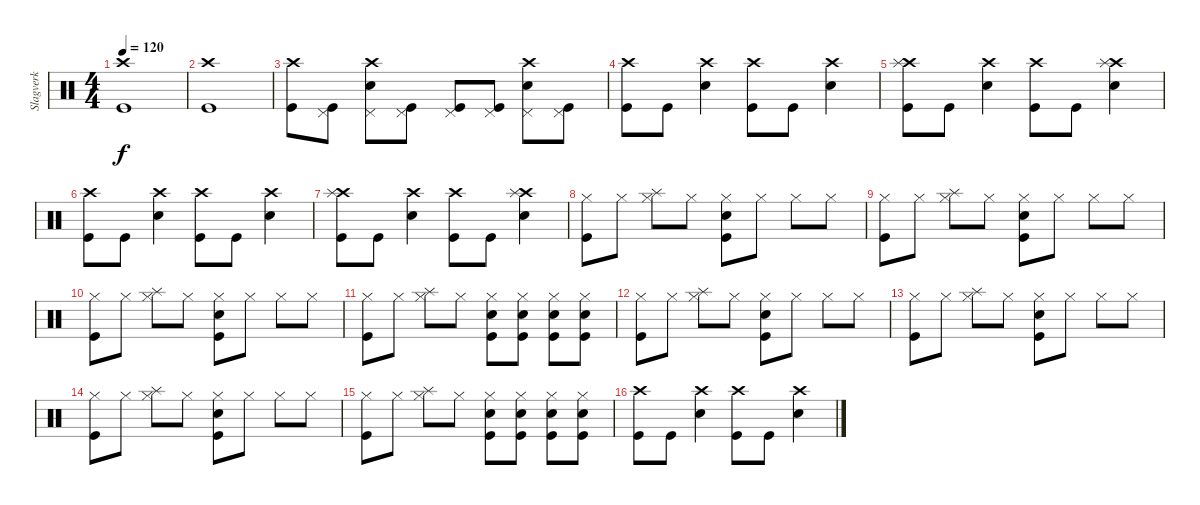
\track ("Slagverk" "Slagverk") {instrument percussion}
\staff {score}
\articulation defaults
\ts (4 4)
\tempo 120
\clef neutral
\ks c
("Crash high (hit)" "Kick (hit)").1{dy f} |
("Crash high (hit)" "Kick (hit)").1 |
("Crash high (hit)" "Kick (hit)").8 ("Pedal Hi-Hat (hit)" "Kick (hit)").8 ("Pedal Hi-Hat (hit)" "Crash high (hit)" "Snare (hit) 2").8 ("Pedal Hi-Hat (hit)" "Kick (hit)").8 ("Pedal Hi-Hat (hit)" "Kick (hit)").8 ("Pedal Hi-Hat (hit)" "Kick (hit)").8 ("Pedal Hi-Hat (hit)" "Crash high (hit)" "Snare (hit) 2").8 ("Pedal Hi-Hat (hit)" "Kick (hit)").8 |
("Crash high (hit)" "Kick (hit)").8 "Kick (hit)".8 ("Crash high (hit)" "Snare (hit) 2").4 ("Crash high (hit)" "Kick (hit)").8 "Kick (hit)".8 ("Crash high (hit)" "Snare (hit) 2").4 |
("Crash high (hit)" "Splash (hit)" "Kick (hit)").8 "Kick (hit)".8 ("Crash high (hit)" "Snare (hit) 2").4 ("Crash high (hit)" "Kick (hit)").8 "Kick (hit)".8 ("Crash high (hit)" "Splash (hit)" "Snare (hit) 2").4 |
("Crash high (hit)" "Kick (hit)").8 "Kick (hit)".8 ("Crash high (hit)" "Snare (hit) 2").4 ("Crash high (hit)" "Kick (hit)").8 "Kick (hit)".8 ("Crash high (hit)" "Snare (hit) 2").4 |
("Crash high (hit)" "Splash (hit)" "Kick (hit)").8 "Kick (hit)".8 ("Crash high (hit)" "Snare (hit) 2").4 ("Crash high (hit)" "Kick (hit)").8 "Kick (hit)".8 ("Crash high (hit)" "Splash (hit)" "Snare (hit) 2").4 |
("Hi-Hat (closed)" "Kick (hit)").8 "Hi-Hat (closed)".8 ("Hi-Hat (closed)" "Splash (hit)").8 "Hi-Hat (closed)".8 ("Hi-Hat (closed)" "Snare (hit) 2" "Kick (hit)").8 "Hi-Hat (closed)".8 "Hi-Hat (closed)".8 "Hi-Hat (closed)".8 |
("Hi-Hat (closed)" "Kick (hit)").8 "Hi-Hat (closed)".8 ("Hi-Hat (closed)" "Splash (hit)").8 "Hi-Hat (closed)".8 ("Hi-Hat (closed)" "Snare (hit) 2" "Kick (hit)").8 "Hi-Hat (closed)".8 "Hi-Hat (closed)".8 "Hi-Hat (closed)".8 |
("Hi-Hat (closed)" "Kick (hit)").8 "Hi-Hat (closed)".8 ("Hi-Hat (closed)" "Splash (hit)").8 "Hi-Hat (closed)".8 ("Hi-Hat (closed)" "Snare (hit) 2" "Kick (hit)").8 "Hi-Hat (closed)".8 "Hi-Hat (closed)".8 "Hi-Hat (closed)".8 |
("Hi-Hat (closed)" "Kick (hit)").8 "Hi-Hat (closed)".8 ("Hi-Hat (closed)" "Splash (hit)").8 "Hi-Hat (closed)".8 ("Hi-Hat (closed)" "Snare (hit) 2" "Kick (hit)").8 ("Hi-Hat (closed)" "Snare (hit) 2" "Kick (hit)").8 ("Hi-Hat (closed)" "Snare (hit) 2" "Kick (hit)").8 ("Hi-Hat (closed)" "Snare (hit) 2" "Kick (hit)").8 |
("Hi-Hat (closed)" "Kick (hit)").8 "Hi-Hat (closed)".8 ("Hi-Hat (closed)" "Splash (hit)").8 "Hi-Hat (closed)".8 ("Hi-Hat (closed)" "Snare (hit) 2" "Kick (hit)").8 "Hi-Hat (closed)".8 "Hi-Hat (closed)".8 "Hi-Hat (closed)".8 |
("Hi-Hat (closed)" "Kick (hit)").8 "Hi-Hat (closed)".8 ("Hi-Hat (closed)" "Splash (hit)").8 "Hi-Hat (closed)".8 ("Hi-Hat (closed)" "Snare (hit) 2" "Kick (hit)").8 "Hi-Hat (closed)".8 "Hi-Hat (closed)".8 "Hi-Hat (closed)".8 |
("Hi-Hat (closed)" "Kick (hit)").8 "Hi-Hat (closed)".8 ("Hi-Hat (closed)" "Splash (hit)").8 "Hi-Hat (closed)".8 ("Hi-Hat (closed)" "Snare (hit) 2" "Kick (hit)").8 "Hi-Hat (closed)".8 "Hi-Hat (closed)".8 "Hi-Hat (closed)".8 |
("Hi-Hat (closed)" "Kick (hit)").8 "Hi-Hat (closed)".8 ("Hi-Hat (closed)" "Splash (hit)").8 "Hi-Hat (closed)".8 ("Hi-Hat (closed)" "Snare (hit) 2" "Kick (hit)").8 ("Hi-Hat (closed)" "Snare (hit) 2" "Kick (hit)").8 ("Hi-Hat (closed)" "Snare (hit) 2" "Kick (hit)").8 ("Hi-Hat (closed)" "Snare (hit) 2" "Kick (hit)").8 |
("Crash high (hit)" "Kick (hit)").8 "Kick (hit)".8 ("Crash high (hit)" "Snare (hit) 2").4 ("Crash high (hit)" "Kick (hit)").8 "Kick (hit)".8 ("Crash high (hit)" "Snare (hit) 2").4
